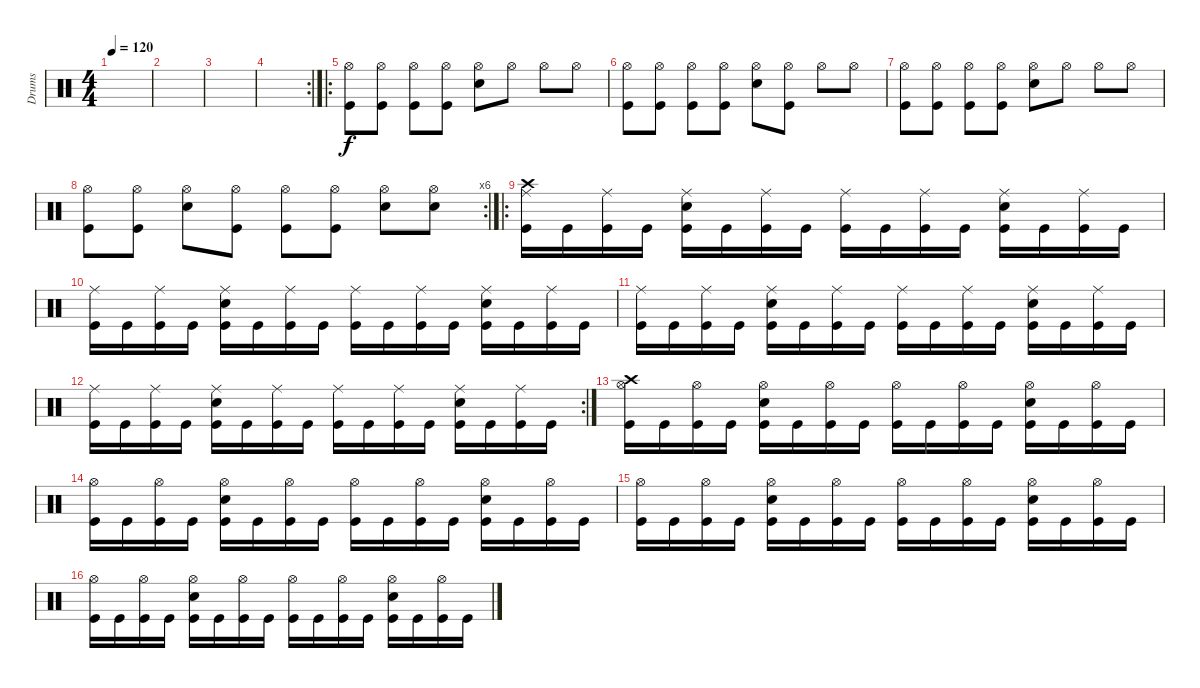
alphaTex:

\track ("Drums" "Drums") {instrument percussion}
\staff {score}
\articulation defaults
\ts (4 4)
\tempo 120
\clef neutral
\ks c
|
|
|
\rc 2
|
\ro
("Hi-Hat (open)" "Kick (hit)").8 ("Hi-Hat (open)" "Kick (hit)").8 ("Hi-Hat (open)" "Kick (hit)").8 ("Hi-Hat (open)" "Kick (hit)").8 ("Hi-Hat (open)" "Electric Snare (hit)").8 "Hi-Hat (open)".8 "Hi-Hat (open)".8 "Hi-Hat (open)".8 |
("Hi-Hat (open)" "Kick (hit)").8 ("Hi-Hat (open)" "Kick (hit)").8 ("Hi-Hat (open)" "Kick (hit)").8 ("Hi-Hat (open)" "Kick (hit)").8 ("Hi-Hat (open)" "Electric Snare (hit)").8 ("Hi-Hat (open)" "Kick (hit)").8 "Hi-Hat (open)".8 "Hi-Hat (open)".8 |
("Hi-Hat (open)" "Kick (hit)").8 ("Hi-Hat (open)" "Kick (hit)").8 ("Hi-Hat (open)" "Kick (hit)").8 ("Hi-Hat (open)" "Kick (hit)").8 ("Hi-Hat (open)" "Electric Snare (hit)").8 "Hi-Hat (open)".8 "Hi-Hat (open)".8 "Hi-Hat (open)".8 |
\rc 6
("Hi-Hat (open)" "Kick (hit)").8 ("Hi-Hat (open)" "Kick (hit)").8 ("Hi-Hat (open)" "Electric Snare (hit)").8 ("Hi-Hat (open)" "Kick (hit)").8 ("Hi-Hat (open)" "Kick (hit)").8 ("Hi-Hat (open)" "Kick (hit)").8 ("Hi-Hat (open)" "Electric Snare (hit)").8 ("Hi-Hat (open)" "Electric Snare (hit)").8 |
\ro
("Crash high (hit)" "Ride (middle)" "Kick (hit)").16 "Kick (hit)".16 ("Ride (middle)" "Kick (hit)").16 "Kick (hit)".16 ("Ride (middle)" "Electric Snare (hit)" "Kick (hit)").16 "Kick (hit)".16 ("Ride (middle)" "Kick (hit)").16 "Kick (hit)".16 ("Ride (middle)" "Kick (hit)").16 "Kick (hit)".16 ("Ride (middle)" "Kick (hit)").16 "Kick (hit)".16 ("Ride (middle)" "Electric Snare (hit)" "Kick (hit)").16 "Kick (hit)".16 ("Ride (middle)" "Kick (hit)").16 "Kick (hit)".16 |
("Ride (middle)" "Kick (hit)").16 "Kick (hit)".16 ("Ride (middle)" "Kick (hit)").16 "Kick (hit)".16 ("Ride (middle)" "Electric Snare (hit)" "Kick (hit)").16 "Kick (hit)".16 ("Ride (middle)" "Kick (hit)").16 "Kick (hit)".16 ("Ride (middle)" "Kick (hit)").16 "Kick (hit)".16 ("Ride (middle)" "Kick (hit)").16 "Kick (hit)".16 ("Ride (middle)" "Electric Snare (hit)" "Kick (hit)").16 "Kick (hit)".16 ("Ride (middle)" "Kick (hit)").16 "Kick (hit)".16 |
("Ride (middle)" "Kick (hit)").16 "Kick (hit)".16 ("Ride (middle)" "Kick (hit)").16 "Kick (hit)".16 ("Ride (middle)" "Electric Snare (hit)" "Kick (hit)").16 "Kick (hit)".16 ("Ride (middle)" "Kick (hit)").16 "Kick (hit)".16 ("Ride (middle)" "Kick (hit)").16 "Kick (hit)".16 ("Ride (middle)" "Kick (hit)").16 "Kick (hit)".16 ("Ride (middle)" "Electric Snare (hit)" "Kick (hit)").16 "Kick (hit)".16 ("Ride (middle)" "Kick (hit)").16 "Kick (hit)".16 |
\rc 2
("Ride (middle)" "Kick (hit)").16 "Kick (hit)".16 ("Ride (middle)" "Kick (hit)").16 "Kick (hit)".16 ("Ride (middle)" "Electric Snare (hit)" "Kick (hit)").16 "Kick (hit)".16 ("Ride (middle)" "Kick (hit)").16 "Kick (hit)".16 ("Ride (middle)" "Kick (hit)").16 "Kick (hit)".16 ("Ride (middle)" "Kick (hit)").16 "Kick (hit)".16 ("Ride (middle)" "Electric Snare (hit)" "Kick (hit)").16 "Kick (hit)".16 ("Ride (middle)" "Kick (hit)").16 "Kick (hit)".16 |
("Hi-Hat (open)" "Crash high (hit)" "Kick (hit)").16 "Kick (hit)".16 ("Hi-Hat (open)" "Kick (hit)").16 "Kick (hit)".16 ("Hi-Hat (open)" "Electric Snare (hit)" "Kick (hit)").16 "Kick (hit)".16 ("Hi-Hat (open)" "Kick (hit)").16 "Kick (hit)".16 ("Hi-Hat (open)" "Kick (hit)").16 "Kick (hit)".16 ("Hi-Hat (open)" "Kick (hit)").16 "Kick (hit)".16 ("Hi-Hat (open)" "Electric Snare (hit)" "Kick (hit)").16 "Kick (hit)".16 ("Hi-Hat (open)" "Kick (hit)").16 "Kick (hit)".16 |
("Hi-Hat (open)" "Kick (hit)").16 "Kick (hit)".16 ("Hi-Hat (open)" "Kick (hit)").16 "Kick (hit)".16 ("Hi-Hat (open)" "Electric Snare (hit)" "Kick (hit)").16 "Kick (hit)".16 ("Hi-Hat (open)" "Kick (hit)").16 "Kick (hit)".16 ("Hi-Hat (open)" "Kick (hit)").16 "Kick (hit)".16 ("Hi-Hat (open)" "Kick (hit)").16 "Kick (hit)".16 ("Hi-Hat (open)" "Electric Snare (hit)" "Kick (hit)").16 "Kick (hit)".16 ("Hi-Hat (open)" "Kick (hit)").16 "Kick (hit)".16 |
("Hi-Hat (open)" "Kick (hit)").16 "Kick (hit)".16 ("Hi-Hat (open)" "Kick (hit)").16 "Kick (hit)".16 ("Hi-Hat (open)" "Electric Snare (hit)" "Kick (hit)").16 "Kick (hit)".16 ("Hi-Hat (open)" "Kick (hit)").16 "Kick (hit)".16 ("Hi-Hat (open)" "Kick (hit)").16 "Kick (hit)".16 ("Hi-Hat (open)" "Kick (hit)").16 "Kick (hit)".16 ("Hi-Hat (open)" "Electric Snare (hit)" "Kick (hit)").16 "Kick (hit)".16 ("Hi-Hat (open)" "Kick (hit)").16 "Kick (hit)".16 |
("Hi-Hat (open)" "Kick (hit)").16 "Kick (hit)".16 ("Hi-Hat (open)" "Kick (hit)").16 "Kick (hit)".16 ("Hi-Hat (open)" "Electric Snare (hit)" "Kick (hit)").16 "Kick (hit)".16 ("Hi-Hat (open)" "Kick (hit)").16 "Kick (hit)".16 ("Hi-Hat (open)" "Kick (hit)").16 "Kick (hit)".16 ("Hi-Hat (open)" "Kick (hit)").16 "Kick (hit)".16 ("Hi-Hat (open)" "Electric Snare (hit)" "Kick (hit)").16 "Kick (hit)".16 ("Hi-Hat (open)" "Kick (hit)").16 "Kick (hit)".16
